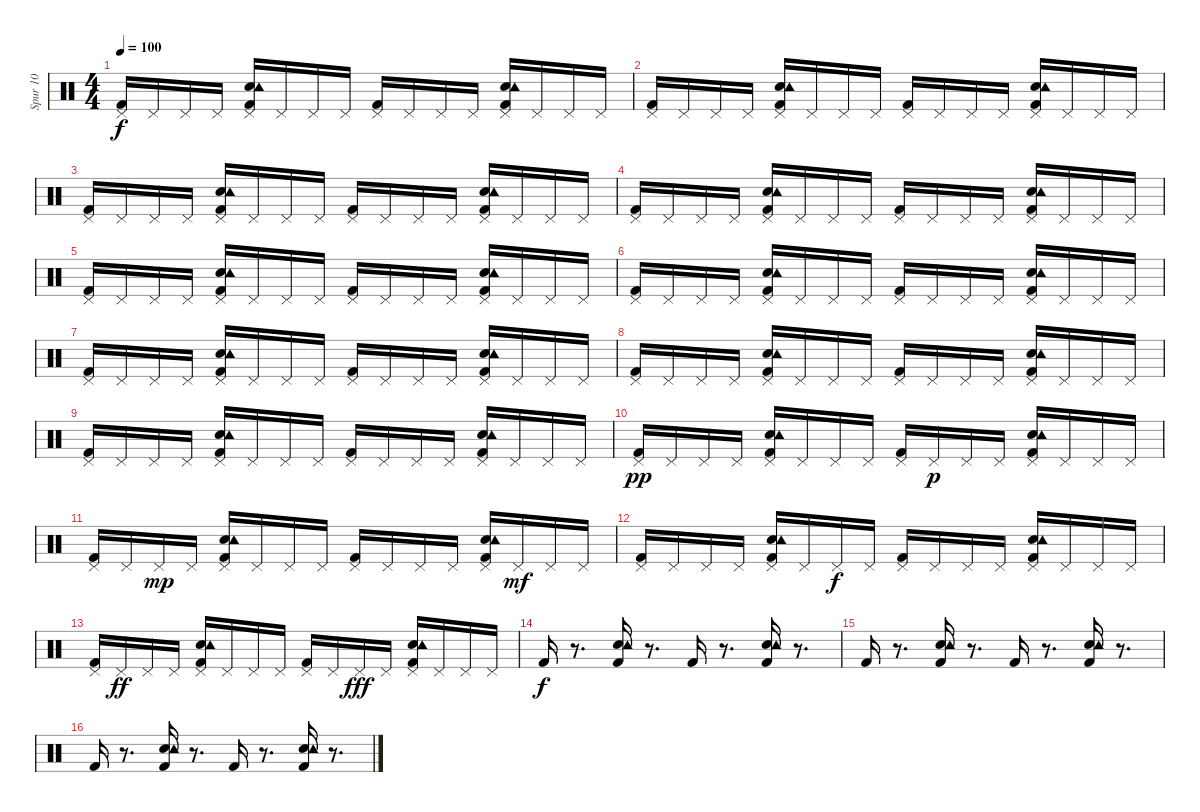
\track ("Spur 10" "Spur 10") {instrument percussion}
\staff {score}
\articulation defaults
\ts (4 4)
\tempo 100
\clef neutral
\ks c
("Kick (hit) 2" "Pedal Hi-Hat (hit)").16{dy f} "Pedal Hi-Hat (hit)".16 "Pedal Hi-Hat (hit)".16 "Pedal Hi-Hat (hit)".16 ("Snare (hit) 2" "Kick (hit) 2" "Tambourine (hit)" "Pedal Hi-Hat (hit)").16 "Pedal Hi-Hat (hit)".16 "Pedal Hi-Hat (hit)".16 "Pedal Hi-Hat (hit)".16 ("Kick (hit) 2" "Pedal Hi-Hat (hit)").16 "Pedal Hi-Hat (hit)".16 "Pedal Hi-Hat (hit)".16 "Pedal Hi-Hat (hit)".16 ("Kick (hit) 2" "Snare (hit) 2" "Tambourine (hit)" "Pedal Hi-Hat (hit)").16 "Pedal Hi-Hat (hit)".16 "Pedal Hi-Hat (hit)".16 "Pedal Hi-Hat (hit)".16 |
("Kick (hit) 2" "Pedal Hi-Hat (hit)").16 "Pedal Hi-Hat (hit)".16 "Pedal Hi-Hat (hit)".16 "Pedal Hi-Hat (hit)".16 ("Kick (hit) 2" "Snare (hit) 2" "Tambourine (hit)" "Pedal Hi-Hat (hit)").16 "Pedal Hi-Hat (hit)".16 "Pedal Hi-Hat (hit)".16 "Pedal Hi-Hat (hit)".16 ("Kick (hit) 2" "Pedal Hi-Hat (hit)").16 "Pedal Hi-Hat (hit)".16 "Pedal Hi-Hat (hit)".16 "Pedal Hi-Hat (hit)".16 ("Snare (hit) 2" "Kick (hit) 2" "Tambourine (hit)" "Pedal Hi-Hat (hit)").16 "Pedal Hi-Hat (hit)".16 "Pedal Hi-Hat (hit)".16 "Pedal Hi-Hat (hit)".16 |
("Kick (hit) 2" "Pedal Hi-Hat (hit)").16 "Pedal Hi-Hat (hit)".16 "Pedal Hi-Hat (hit)".16 "Pedal Hi-Hat (hit)".16 ("Kick (hit) 2" "Snare (hit) 2" "Tambourine (hit)" "Pedal Hi-Hat (hit)").16 "Pedal Hi-Hat (hit)".16 "Pedal Hi-Hat (hit)".16 "Pedal Hi-Hat (hit)".16 ("Kick (hit) 2" "Pedal Hi-Hat (hit)").16 "Pedal Hi-Hat (hit)".16 "Pedal Hi-Hat (hit)".16 "Pedal Hi-Hat (hit)".16 ("Kick (hit) 2" "Snare (hit) 2" "Tambourine (hit)" "Pedal Hi-Hat (hit)").16 "Pedal Hi-Hat (hit)".16 "Pedal Hi-Hat (hit)".16 "Pedal Hi-Hat (hit)".16 |
("Kick (hit) 2" "Pedal Hi-Hat (hit)").16 "Pedal Hi-Hat (hit)".16 "Pedal Hi-Hat (hit)".16 "Pedal Hi-Hat (hit)".16 ("Snare (hit) 2" "Kick (hit) 2" "Tambourine (hit)" "Pedal Hi-Hat (hit)").16 "Pedal Hi-Hat (hit)".16 "Pedal Hi-Hat (hit)".16 "Pedal Hi-Hat (hit)".16 ("Kick (hit) 2" "Pedal Hi-Hat (hit)").16 "Pedal Hi-Hat (hit)".16 "Pedal Hi-Hat (hit)".16 "Pedal Hi-Hat (hit)".16 ("Kick (hit) 2" "Snare (hit) 2" "Tambourine (hit)" "Pedal Hi-Hat (hit)").16 "Pedal Hi-Hat (hit)".16 "Pedal Hi-Hat (hit)".16 "Pedal Hi-Hat (hit)".16 |
("Kick (hit) 2" "Pedal Hi-Hat (hit)").16 "Pedal Hi-Hat (hit)".16 "Pedal Hi-Hat (hit)".16 "Pedal Hi-Hat (hit)".16 ("Snare (hit) 2" "Kick (hit) 2" "Tambourine (hit)" "Pedal Hi-Hat (hit)").16 "Pedal Hi-Hat (hit)".16 "Pedal Hi-Hat (hit)".16 "Pedal Hi-Hat (hit)".16 ("Kick (hit) 2" "Pedal Hi-Hat (hit)").16 "Pedal Hi-Hat (hit)".16 "Pedal Hi-Hat (hit)".16 "Pedal Hi-Hat (hit)".16 ("Kick (hit) 2" "Snare (hit) 2" "Tambourine (hit)" "Pedal Hi-Hat (hit)").16 "Pedal Hi-Hat (hit)".16 "Pedal Hi-Hat (hit)".16 "Pedal Hi-Hat (hit)".16 |
("Kick (hit) 2" "Pedal Hi-Hat (hit)").16 "Pedal Hi-Hat (hit)".16 "Pedal Hi-Hat (hit)".16 "Pedal Hi-Hat (hit)".16 ("Kick (hit) 2" "Snare (hit) 2" "Tambourine (hit)" "Pedal Hi-Hat (hit)").16 "Pedal Hi-Hat (hit)".16 "Pedal Hi-Hat (hit)".16 "Pedal Hi-Hat (hit)".16 ("Kick (hit) 2" "Pedal Hi-Hat (hit)").16 "Pedal Hi-Hat (hit)".16 "Pedal Hi-Hat (hit)".16 "Pedal Hi-Hat (hit)".16 ("Snare (hit) 2" "Kick (hit) 2" "Tambourine (hit)" "Pedal Hi-Hat (hit)").16 "Pedal Hi-Hat (hit)".16 "Pedal Hi-Hat (hit)".16 "Pedal Hi-Hat (hit)".16 |
("Kick (hit) 2" "Pedal Hi-Hat (hit)").16 "Pedal Hi-Hat (hit)".16 "Pedal Hi-Hat (hit)".16 "Pedal Hi-Hat (hit)".16 ("Kick (hit) 2" "Snare (hit) 2" "Tambourine (hit)" "Pedal Hi-Hat (hit)").16 "Pedal Hi-Hat (hit)".16 "Pedal Hi-Hat (hit)".16 "Pedal Hi-Hat (hit)".16 ("Kick (hit) 2" "Pedal Hi-Hat (hit)").16 "Pedal Hi-Hat (hit)".16 "Pedal Hi-Hat (hit)".16 "Pedal Hi-Hat (hit)".16 ("Kick (hit) 2" "Snare (hit) 2" "Tambourine (hit)" "Pedal Hi-Hat (hit)").16 "Pedal Hi-Hat (hit)".16 "Pedal Hi-Hat (hit)".16 "Pedal Hi-Hat (hit)".16 |
("Kick (hit) 2" "Pedal Hi-Hat (hit)").16 "Pedal Hi-Hat (hit)".16 "Pedal Hi-Hat (hit)".16 "Pedal Hi-Hat (hit)".16 ("Snare (hit) 2" "Kick (hit) 2" "Tambourine (hit)" "Pedal Hi-Hat (hit)").16 "Pedal Hi-Hat (hit)".16 "Pedal Hi-Hat (hit)".16 "Pedal Hi-Hat (hit)".16 ("Kick (hit) 2" "Pedal Hi-Hat (hit)").16 "Pedal Hi-Hat (hit)".16 "Pedal Hi-Hat (hit)".16 "Pedal Hi-Hat (hit)".16 ("Kick (hit) 2" "Snare (hit) 2" "Tambourine (hit)" "Pedal Hi-Hat (hit)").16 "Pedal Hi-Hat (hit)".16 "Pedal Hi-Hat (hit)".16 "Pedal Hi-Hat (hit)".16 |
("Kick (hit) 2" "Pedal Hi-Hat (hit)").16 "Pedal Hi-Hat (hit)".16 "Pedal Hi-Hat (hit)".16 "Pedal Hi-Hat (hit)".16 ("Snare (hit) 2" "Kick (hit) 2" "Tambourine (hit)" "Pedal Hi-Hat (hit)").16 "Pedal Hi-Hat (hit)".16 "Pedal Hi-Hat (hit)".16 "Pedal Hi-Hat (hit)".16 ("Kick (hit) 2" "Pedal Hi-Hat (hit)").16 "Pedal Hi-Hat (hit)".16 "Pedal Hi-Hat (hit)".16 "Pedal Hi-Hat (hit)".16 ("Kick (hit) 2" "Snare (hit) 2" "Tambourine (hit)" "Pedal Hi-Hat (hit)").16 "Pedal Hi-Hat (hit)".16 "Pedal Hi-Hat (hit)".16 "Pedal Hi-Hat (hit)".16 |
("Kick (hit) 2" "Pedal Hi-Hat (hit)").16{dy pp} "Pedal Hi-Hat (hit)".16 "Pedal Hi-Hat (hit)".16 "Pedal Hi-Hat (hit)".16 ("Kick (hit) 2" "Snare (hit) 2" "Tambourine (hit)" "Pedal Hi-Hat (hit)").16 "Pedal Hi-Hat (hit)".16 "Pedal Hi-Hat (hit)".16 "Pedal Hi-Hat (hit)".16 ("Kick (hit) 2" "Pedal Hi-Hat (hit)").16 "Pedal Hi-Hat (hit)".16{dy p} "Pedal Hi-Hat (hit)".16 "Pedal Hi-Hat (hit)".16 ("Snare (hit) 2" "Kick (hit) 2" "Tambourine (hit)" "Pedal Hi-Hat (hit)").16 "Pedal Hi-Hat (hit)".16 "Pedal Hi-Hat (hit)".16 "Pedal Hi-Hat (hit)".16 |
("Kick (hit) 2" "Pedal Hi-Hat (hit)").16 "Pedal Hi-Hat (hit)".16 "Pedal Hi-Hat (hit)".16{dy mp} "Pedal Hi-Hat (hit)".16 ("Kick (hit) 2" "Snare (hit) 2" "Tambourine (hit)" "Pedal Hi-Hat (hit)").16 "Pedal Hi-Hat (hit)".16 "Pedal Hi-Hat (hit)".16 "Pedal Hi-Hat (hit)".16 ("Kick (hit) 2" "Pedal Hi-Hat (hit)").16 "Pedal Hi-Hat (hit)".16 "Pedal Hi-Hat (hit)".16 "Pedal Hi-Hat (hit)".16 ("Kick (hit) 2" "Snare (hit) 2" "Tambourine (hit)" "Pedal Hi-Hat (hit)").16 "Pedal Hi-Hat (hit)".16{dy mf} "Pedal Hi-Hat (hit)".16 "Pedal Hi-Hat (hit)".16 |
("Kick (hit) 2" "Pedal Hi-Hat (hit)").16 "Pedal Hi-Hat (hit)".16 "Pedal Hi-Hat (hit)".16 "Pedal Hi-Hat (hit)".16 ("Snare (hit) 2" "Kick (hit) 2" "Tambourine (hit)" "Pedal Hi-Hat (hit)").16 "Pedal Hi-Hat (hit)".16 "Pedal Hi-Hat (hit)".16{dy f} "Pedal Hi-Hat (hit)".16 ("Kick (hit) 2" "Pedal Hi-Hat (hit)").16 "Pedal Hi-Hat (hit)".16 "Pedal Hi-Hat (hit)".16 "Pedal Hi-Hat (hit)".16 ("Kick (hit) 2" "Snare (hit) 2" "Tambourine (hit)" "Pedal Hi-Hat (hit)").16 "Pedal Hi-Hat (hit)".16 "Pedal Hi-Hat (hit)".16 "Pedal Hi-Hat (hit)".16 |
("Kick (hit) 2" "Pedal Hi-Hat (hit)").16 "Pedal Hi-Hat (hit)".16{dy ff} "Pedal Hi-Hat (hit)".16 "Pedal Hi-Hat (hit)".16 ("Snare (hit) 2" "Kick (hit) 2" "Tambourine (hit)" "Pedal Hi-Hat (hit)").16 "Pedal Hi-Hat (hit)".16 "Pedal Hi-Hat (hit)".16 "Pedal Hi-Hat (hit)".16 ("Kick (hit) 2" "Pedal Hi-Hat (hit)").16 "Pedal Hi-Hat (hit)".16 "Pedal Hi-Hat (hit)".16{dy fff} "Pedal Hi-Hat (hit)".16 ("Kick (hit) 2" "Snare (hit) 2" "Tambourine (hit)" "Pedal Hi-Hat (hit)").16 "Pedal Hi-Hat (hit)".16 "Pedal Hi-Hat (hit)".16 "Pedal Hi-Hat (hit)".16 |
"Kick (hit) 2".16{dy f} r.8{d} ("Kick (hit) 2" "Snare (hit) 2" "Tambourine (hit)").16 r.8{d} "Kick (hit) 2".16 r.8{d} ("Snare (hit) 2" "Kick (hit) 2" "Tambourine (hit)").16 r.8{d} |
"Kick (hit) 2".16 r.8{d} ("Kick (hit) 2" "Snare (hit) 2" "Tambourine (hit)").16 r.8{d} "Kick (hit) 2".16 r.8{d} ("Kick (hit) 2" "Snare (hit) 2" "Tambourine (hit)").16 r.8{d} |
"Kick (hit) 2".16 r.8{d} ("Snare (hit) 2" "Kick (hit) 2" "Tambourine (hit)").16 r.8{d} "Kick (hit) 2".16 r.8{d} ("Kick (hit) 2" "Snare (hit) 2" "Tambourine (hit)").16 r.8{d}
